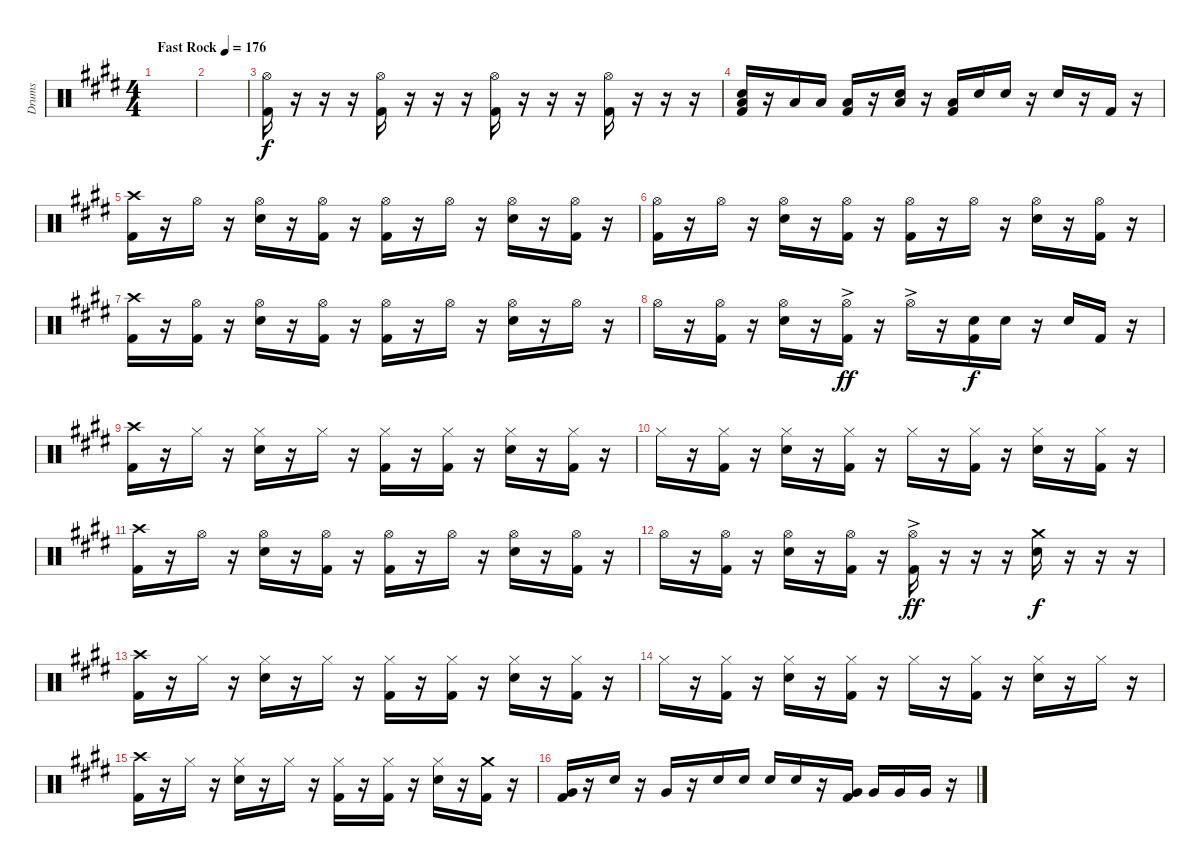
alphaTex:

\track ("Drums" "Drums") {instrument percussion}
\staff {score}
\articulation defaults
\ts (4 4)
\tempo (176 "Fast Rock")
\clef neutral
\ks e
|
|
("Hi-Hat (open)" "Kick (hit) 2").16 r.16 r.16 r.16 ("Hi-Hat (open)" "Kick (hit) 2").16 r.16 r.16 r.16 ("Hi-Hat (open)" "Kick (hit) 2").16 r.16 r.16 r.16 ("Hi-Hat (open)" "Kick (hit) 2").16 r.16 r.16 r.16 |
("Low Floor Tom (hit)" "Electric Snare (hit)" "Kick (hit) 2").16 r.16 "Low Floor Tom (hit)".16 "Low Floor Tom (hit)".16 ("Low Floor Tom (hit)" "Kick (hit) 2").16 r.16 ("Low Floor Tom (hit)" "Electric Snare (hit)").16 r.16 ("Low Floor Tom (hit)" "Kick (hit) 2").16 "Electric Snare (hit)".16 "Electric Snare (hit)".16 r.16 "Electric Snare (hit)".16 r.16 "Kick (hit) 2".16 r.16 |
("Crash high (hit)" "Kick (hit) 2").16 r.16 "Hi-Hat (open)".16 r.16 ("Hi-Hat (open)" "Electric Snare (hit)").16 r.16 ("Hi-Hat (open)" "Kick (hit) 2").16 r.16 ("Hi-Hat (open)" "Kick (hit) 2").16 r.16 "Hi-Hat (open)".16 r.16 ("Hi-Hat (open)" "Electric Snare (hit)").16 r.16 ("Hi-Hat (open)" "Kick (hit) 2").16 r.16 |
("Hi-Hat (open)" "Kick (hit) 2").16 r.16 "Hi-Hat (open)".16 r.16 ("Hi-Hat (open)" "Electric Snare (hit)").16 r.16 ("Hi-Hat (open)" "Kick (hit) 2").16 r.16 ("Hi-Hat (open)" "Kick (hit) 2").16 r.16 "Hi-Hat (open)".16 r.16 ("Hi-Hat (open)" "Electric Snare (hit)").16 r.16 ("Hi-Hat (open)" "Kick (hit) 2").16 r.16 |
("Crash high (hit)" "Kick (hit) 2").16 r.16 ("Hi-Hat (open)" "Kick (hit) 2").16 r.16 ("Hi-Hat (open)" "Electric Snare (hit)").16 r.16 ("Hi-Hat (open)" "Kick (hit) 2").16 r.16 ("Hi-Hat (open)" "Kick (hit) 2").16 r.16 "Hi-Hat (open)".16 r.16 ("Hi-Hat (open)" "Electric Snare (hit)").16 r.16 "Hi-Hat (open)".16 r.16 |
"Hi-Hat (open)".16 r.16 ("Hi-Hat (open)" "Kick (hit) 2").16 r.16 ("Hi-Hat (open)" "Electric Snare (hit)").16 r.16 ("Hi-Hat (open)"{ac} "Kick (hit) 2").16{dy ff} r.16 "Hi-Hat (open)"{ac}.16 r.16 ("Electric Snare (hit)" "Kick (hit) 2").16{dy f} "Electric Snare (hit)".16 r.16 "Electric Snare (hit)".16 "Kick (hit) 2".16 r.16 |
("Crash high (hit)" "Kick (hit) 2").16 r.16 "Hi-Hat (closed)".16 r.16 ("Hi-Hat (closed)" "Electric Snare (hit)").16 r.16 "Hi-Hat (closed)".16 r.16 ("Hi-Hat (closed)" "Kick (hit) 2").16 r.16 ("Hi-Hat (closed)" "Kick (hit) 2").16 r.16 ("Hi-Hat (closed)" "Electric Snare (hit)").16 r.16 ("Hi-Hat (closed)" "Kick (hit) 2").16 r.16 |
"Hi-Hat (closed)".16 r.16 ("Hi-Hat (closed)" "Kick (hit) 2").16 r.16 ("Hi-Hat (closed)" "Electric Snare (hit)").16 r.16 ("Hi-Hat (closed)" "Kick (hit) 2").16 r.16 "Hi-Hat (closed)".16 r.16 ("Hi-Hat (closed)" "Kick (hit) 2").16 r.16 ("Hi-Hat (closed)" "Electric Snare (hit)").16 r.16 ("Hi-Hat (closed)" "Kick (hit) 2").16 r.16 |
("Crash high (hit)" "Kick (hit) 2").16 r.16 "Hi-Hat (open)".16 r.16 ("Hi-Hat (open)" "Electric Snare (hit)").16 r.16 ("Hi-Hat (open)" "Kick (hit) 2").16 r.16 ("Hi-Hat (open)" "Kick (hit) 2").16 r.16 "Hi-Hat (open)".16 r.16 ("Hi-Hat (open)" "Electric Snare (hit)").16 r.16 ("Hi-Hat (open)" "Kick (hit) 2").16 r.16 |
"Hi-Hat (open)".16 r.16 ("Hi-Hat (open)" "Kick (hit) 2").16 r.16 ("Hi-Hat (open)" "Electric Snare (hit)").16 r.16 ("Hi-Hat (open)" "Kick (hit) 2").16 r.16 ("Hi-Hat (open)"{ac} "Kick (hit) 2").16{dy ff} r.16 r.16 r.16 ("Crash medium (hit)" "Electric Snare (hit)").16{dy f} r.16 r.16 r.16 |
("Crash high (hit)" "Kick (hit) 2").16 r.16 "Hi-Hat (closed)".16 r.16 ("Hi-Hat (closed)" "Electric Snare (hit)").16 r.16 "Hi-Hat (closed)".16 r.16 ("Hi-Hat (closed)" "Kick (hit) 2").16 r.16 ("Hi-Hat (closed)" "Kick (hit) 2").16 r.16 ("Hi-Hat (closed)" "Electric Snare (hit)").16 r.16 ("Hi-Hat (closed)" "Kick (hit) 2").16 r.16 |
"Hi-Hat (closed)".16 r.16 ("Hi-Hat (closed)" "Kick (hit) 2").16 r.16 ("Hi-Hat (closed)" "Electric Snare (hit)").16 r.16 ("Hi-Hat (closed)" "Kick (hit) 2").16 r.16 "Hi-Hat (closed)".16 r.16 ("Hi-Hat (closed)" "Kick (hit) 2").16 r.16 ("Hi-Hat (closed)" "Electric Snare (hit)").16 r.16 "Hi-Hat (closed)".16 r.16 |
("Crash high (hit)" "Kick (hit) 2").16 r.16 "Hi-Hat (closed)".16 r.16 ("Hi-Hat (closed)" "Electric Snare (hit)").16 r.16 "Hi-Hat (closed)".16 r.16 ("Hi-Hat (closed)" "Kick (hit) 2").16 r.16 ("Hi-Hat (closed)" "Kick (hit) 2").16 r.16 ("Hi-Hat (closed)" "Electric Snare (hit)").16 r.16 ("Crash medium (hit)" "Kick (hit) 2").16 r.16 |
("Very Low Tom (hit)" "Kick (hit) 2").16 r.16 "Electric Snare (hit)".16 r.16 "Very Low Tom (hit)".16 r.16 "Electric Snare (hit)".16 "Electric Snare (hit)".16 "Electric Snare (hit)".16 "Electric Snare (hit)".16 r.16 ("Very Low Tom (hit)" "Kick (hit) 2").16 "Very Low Tom (hit)".16 "Very Low Tom (hit)".16 "Very Low Tom (hit)".16 r.16
